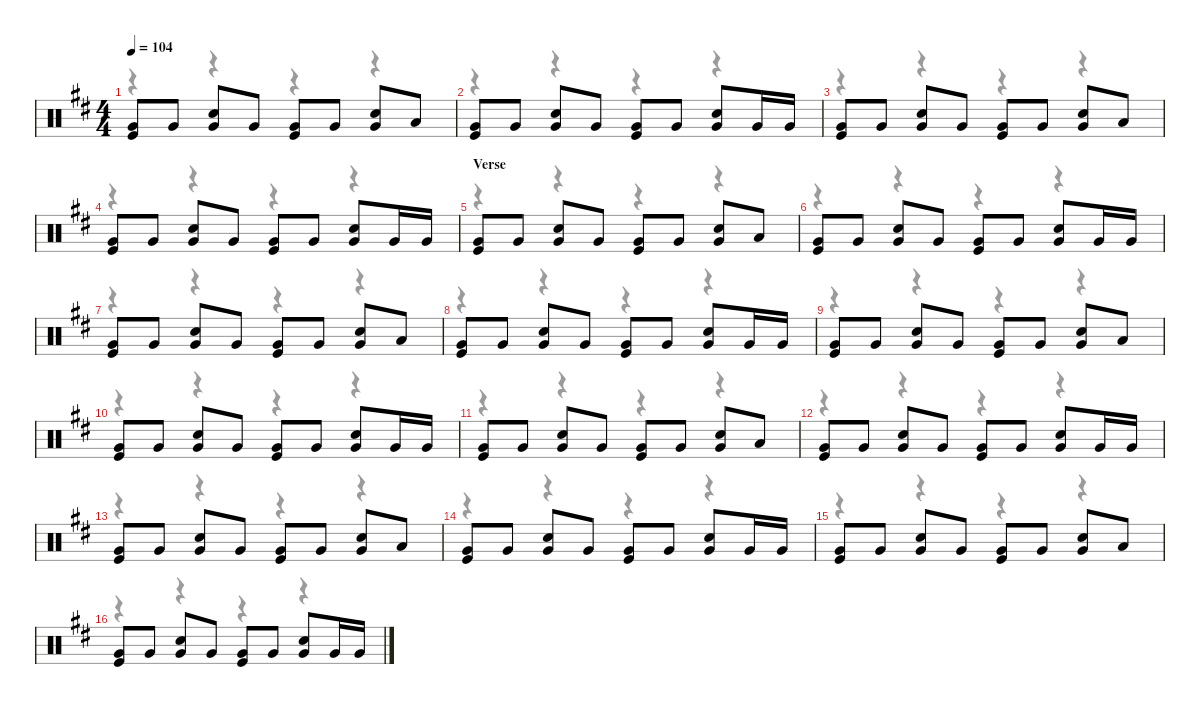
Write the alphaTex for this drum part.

\defaultSystemsLayout 4
\hideDynamics
\bracketExtendMode nobrackets
\singleTrackTrackNamePolicy hidden
\multiTrackTrackNamePolicy hidden
\firstSystemTrackNameMode fullname
\otherSystemsTrackNameOrientation horizontal
\track ("Drums" "drm.") {instrument percussion}
\staff {score}
\articulation defaults
\voice
\ts (4 4)
\tempo 104
\clef neutral
\ks bminor
("Very Low Tom (hit)"{acc forcenatural} "Kick (hit)"{acc forcenatural}).8{dy mp beam Up} "Very Low Tom (hit)"{acc forcenatural}.8{beam Up} ("Very Low Tom (hit)"{acc forcenatural} "Snare (hit) 2"{acc forcenatural}).8{beam Up} "Very Low Tom (hit)"{acc forcenatural}.8{beam Up} ("Very Low Tom (hit)"{acc forcenatural} "Kick (hit)"{acc forcenatural}).8{beam Up} "Very Low Tom (hit)"{acc forcenatural}.8{beam Up} ("Very Low Tom (hit)"{acc forcenatural} "Snare (hit) 2"{acc forcenatural}).8{beam Up} "Low Tom (hit)"{acc forcenatural}.8{beam Up} |
("Very Low Tom (hit)"{acc forcenatural} "Kick (hit)"{acc forcenatural}).8{beam Up} "Very Low Tom (hit)"{acc forcenatural}.8{beam Up} ("Very Low Tom (hit)"{acc forcenatural} "Snare (hit) 2"{acc forcenatural}).8{beam Up} "Very Low Tom (hit)"{acc forcenatural}.8{beam Up} ("Very Low Tom (hit)"{acc forcenatural} "Kick (hit)"{acc forcenatural}).8{beam Up} "Very Low Tom (hit)"{acc forcenatural}.8{beam Up} ("Very Low Tom (hit)"{acc forcenatural} "Snare (hit) 2"{acc forcenatural}).8{beam Up} "Very Low Tom (hit)"{acc forcenatural}.16{beam Up} "Very Low Tom (hit)"{acc forcenatural}.16{beam Up} |
("Very Low Tom (hit)"{acc forcenatural} "Kick (hit)"{acc forcenatural}).8{beam Up} "Very Low Tom (hit)"{acc forcenatural}.8{beam Up} ("Very Low Tom (hit)"{acc forcenatural} "Snare (hit) 2"{acc forcenatural}).8{beam Up} "Very Low Tom (hit)"{acc forcenatural}.8{beam Up} ("Very Low Tom (hit)"{acc forcenatural} "Kick (hit)"{acc forcenatural}).8{beam Up} "Very Low Tom (hit)"{acc forcenatural}.8{beam Up} ("Very Low Tom (hit)"{acc forcenatural} "Snare (hit) 2"{acc forcenatural}).8{beam Up} "Low Tom (hit)"{acc forcenatural}.8{beam Up} |
("Very Low Tom (hit)"{acc forcenatural} "Kick (hit)"{acc forcenatural}).8{beam Up} "Very Low Tom (hit)"{acc forcenatural}.8{beam Up} ("Very Low Tom (hit)"{acc forcenatural} "Snare (hit) 2"{acc forcenatural}).8{beam Up} "Very Low Tom (hit)"{acc forcenatural}.8{beam Up} ("Very Low Tom (hit)"{acc forcenatural} "Kick (hit)"{acc forcenatural}).8{beam Up} "Very Low Tom (hit)"{acc forcenatural}.8{beam Up} ("Very Low Tom (hit)"{acc forcenatural} "Snare (hit) 2"{acc forcenatural}).8{beam Up} "Very Low Tom (hit)"{acc forcenatural}.16{beam Up} "Very Low Tom (hit)"{acc forcenatural}.16{beam Up} |
\section ("" "Verse")
("Very Low Tom (hit)"{acc forcenatural} "Kick (hit)"{acc forcenatural}).8{beam Up} "Very Low Tom (hit)"{acc forcenatural}.8{beam Up} ("Very Low Tom (hit)"{acc forcenatural} "Snare (hit) 2"{acc forcenatural}).8{beam Up} "Very Low Tom (hit)"{acc forcenatural}.8{beam Up} ("Very Low Tom (hit)"{acc forcenatural} "Kick (hit)"{acc forcenatural}).8{beam Up} "Very Low Tom (hit)"{acc forcenatural}.8{beam Up} ("Very Low Tom (hit)"{acc forcenatural} "Snare (hit) 2"{acc forcenatural}).8{beam Up} "Low Tom (hit)"{acc forcenatural}.8{beam Up} |
("Very Low Tom (hit)"{acc forcenatural} "Kick (hit)"{acc forcenatural}).8{beam Up} "Very Low Tom (hit)"{acc forcenatural}.8{beam Up} ("Very Low Tom (hit)"{acc forcenatural} "Snare (hit) 2"{acc forcenatural}).8{beam Up} "Very Low Tom (hit)"{acc forcenatural}.8{beam Up} ("Very Low Tom (hit)"{acc forcenatural} "Kick (hit)"{acc forcenatural}).8{beam Up} "Very Low Tom (hit)"{acc forcenatural}.8{beam Up} ("Very Low Tom (hit)"{acc forcenatural} "Snare (hit) 2"{acc forcenatural}).8{beam Up} "Very Low Tom (hit)"{acc forcenatural}.16{beam Up} "Very Low Tom (hit)"{acc forcenatural}.16{beam Up} |
("Very Low Tom (hit)"{acc forcenatural} "Kick (hit)"{acc forcenatural}).8{beam Up} "Very Low Tom (hit)"{acc forcenatural}.8{beam Up} ("Very Low Tom (hit)"{acc forcenatural} "Snare (hit) 2"{acc forcenatural}).8{beam Up} "Very Low Tom (hit)"{acc forcenatural}.8{beam Up} ("Very Low Tom (hit)"{acc forcenatural} "Kick (hit)"{acc forcenatural}).8{beam Up} "Very Low Tom (hit)"{acc forcenatural}.8{beam Up} ("Very Low Tom (hit)"{acc forcenatural} "Snare (hit) 2"{acc forcenatural}).8{beam Up} "Low Tom (hit)"{acc forcenatural}.8{beam Up} |
("Very Low Tom (hit)"{acc forcenatural} "Kick (hit)"{acc forcenatural}).8{beam Up} "Very Low Tom (hit)"{acc forcenatural}.8{beam Up} ("Very Low Tom (hit)"{acc forcenatural} "Snare (hit) 2"{acc forcenatural}).8{beam Up} "Very Low Tom (hit)"{acc forcenatural}.8{beam Up} ("Very Low Tom (hit)"{acc forcenatural} "Kick (hit)"{acc forcenatural}).8{beam Up} "Very Low Tom (hit)"{acc forcenatural}.8{beam Up} ("Very Low Tom (hit)"{acc forcenatural} "Snare (hit) 2"{acc forcenatural}).8{beam Up} "Very Low Tom (hit)"{acc forcenatural}.16{beam Up} "Very Low Tom (hit)"{acc forcenatural}.16{beam Up} |
("Very Low Tom (hit)"{acc forcenatural} "Kick (hit)"{acc forcenatural}).8{beam Up} "Very Low Tom (hit)"{acc forcenatural}.8{beam Up} ("Very Low Tom (hit)"{acc forcenatural} "Snare (hit) 2"{acc forcenatural}).8{beam Up} "Very Low Tom (hit)"{acc forcenatural}.8{beam Up} ("Very Low Tom (hit)"{acc forcenatural} "Kick (hit)"{acc forcenatural}).8{beam Up} "Very Low Tom (hit)"{acc forcenatural}.8{beam Up} ("Very Low Tom (hit)"{acc forcenatural} "Snare (hit) 2"{acc forcenatural}).8{beam Up} "Low Tom (hit)"{acc forcenatural}.8{beam Up} |
("Very Low Tom (hit)"{acc forcenatural} "Kick (hit)"{acc forcenatural}).8{beam Up} "Very Low Tom (hit)"{acc forcenatural}.8{beam Up} ("Very Low Tom (hit)"{acc forcenatural} "Snare (hit) 2"{acc forcenatural}).8{beam Up} "Very Low Tom (hit)"{acc forcenatural}.8{beam Up} ("Very Low Tom (hit)"{acc forcenatural} "Kick (hit)"{acc forcenatural}).8{beam Up} "Very Low Tom (hit)"{acc forcenatural}.8{beam Up} ("Very Low Tom (hit)"{acc forcenatural} "Snare (hit) 2"{acc forcenatural}).8{beam Up} "Very Low Tom (hit)"{acc forcenatural}.16{beam Up} "Very Low Tom (hit)"{acc forcenatural}.16{beam Up} |
("Very Low Tom (hit)"{acc forcenatural} "Kick (hit)"{acc forcenatural}).8{beam Up} "Very Low Tom (hit)"{acc forcenatural}.8{beam Up} ("Very Low Tom (hit)"{acc forcenatural} "Snare (hit) 2"{acc forcenatural}).8{beam Up} "Very Low Tom (hit)"{acc forcenatural}.8{beam Up} ("Very Low Tom (hit)"{acc forcenatural} "Kick (hit)"{acc forcenatural}).8{beam Up} "Very Low Tom (hit)"{acc forcenatural}.8{beam Up} ("Very Low Tom (hit)"{acc forcenatural} "Snare (hit) 2"{acc forcenatural}).8{beam Up} "Low Tom (hit)"{acc forcenatural}.8{beam Up} |
("Very Low Tom (hit)"{acc forcenatural} "Kick (hit)"{acc forcenatural}).8{beam Up} "Very Low Tom (hit)"{acc forcenatural}.8{beam Up} ("Very Low Tom (hit)"{acc forcenatural} "Snare (hit) 2"{acc forcenatural}).8{beam Up} "Very Low Tom (hit)"{acc forcenatural}.8{beam Up} ("Very Low Tom (hit)"{acc forcenatural} "Kick (hit)"{acc forcenatural}).8{beam Up} "Very Low Tom (hit)"{acc forcenatural}.8{beam Up} ("Very Low Tom (hit)"{acc forcenatural} "Snare (hit) 2"{acc forcenatural}).8{beam Up} "Very Low Tom (hit)"{acc forcenatural}.16{beam Up} "Very Low Tom (hit)"{acc forcenatural}.16{beam Up} |
("Very Low Tom (hit)"{acc forcenatural} "Kick (hit)"{acc forcenatural}).8{beam Up} "Very Low Tom (hit)"{acc forcenatural}.8{beam Up} ("Very Low Tom (hit)"{acc forcenatural} "Snare (hit) 2"{acc forcenatural}).8{beam Up} "Very Low Tom (hit)"{acc forcenatural}.8{beam Up} ("Very Low Tom (hit)"{acc forcenatural} "Kick (hit)"{acc forcenatural}).8{beam Up} "Very Low Tom (hit)"{acc forcenatural}.8{beam Up} ("Very Low Tom (hit)"{acc forcenatural} "Snare (hit) 2"{acc forcenatural}).8{beam Up} "Low Tom (hit)"{acc forcenatural}.8{beam Up} |
("Very Low Tom (hit)"{acc forcenatural} "Kick (hit)"{acc forcenatural}).8{beam Up} "Very Low Tom (hit)"{acc forcenatural}.8{beam Up} ("Very Low Tom (hit)"{acc forcenatural} "Snare (hit) 2"{acc forcenatural}).8{beam Up} "Very Low Tom (hit)"{acc forcenatural}.8{beam Up} ("Very Low Tom (hit)"{acc forcenatural} "Kick (hit)"{acc forcenatural}).8{beam Up} "Very Low Tom (hit)"{acc forcenatural}.8{beam Up} ("Very Low Tom (hit)"{acc forcenatural} "Snare (hit) 2"{acc forcenatural}).8{beam Up} "Very Low Tom (hit)"{acc forcenatural}.16{beam Up} "Very Low Tom (hit)"{acc forcenatural}.16{beam Up} |
("Very Low Tom (hit)"{acc forcenatural} "Kick (hit)"{acc forcenatural}).8{beam Up} "Very Low Tom (hit)"{acc forcenatural}.8{beam Up} ("Very Low Tom (hit)"{acc forcenatural} "Snare (hit) 2"{acc forcenatural}).8{beam Up} "Very Low Tom (hit)"{acc forcenatural}.8{beam Up} ("Very Low Tom (hit)"{acc forcenatural} "Kick (hit)"{acc forcenatural}).8{beam Up} "Very Low Tom (hit)"{acc forcenatural}.8{beam Up} ("Very Low Tom (hit)"{acc forcenatural} "Snare (hit) 2"{acc forcenatural}).8{beam Up} "Low Tom (hit)"{acc forcenatural}.8{beam Up} |
("Very Low Tom (hit)"{acc forcenatural} "Kick (hit)"{acc forcenatural}).8{beam Up} "Very Low Tom (hit)"{acc forcenatural}.8{beam Up} ("Very Low Tom (hit)"{acc forcenatural} "Snare (hit) 2"{acc forcenatural}).8{beam Up} "Very Low Tom (hit)"{acc forcenatural}.8{beam Up} ("Very Low Tom (hit)"{acc forcenatural} "Kick (hit)"{acc forcenatural}).8{beam Up} "Very Low Tom (hit)"{acc forcenatural}.8{beam Up} ("Very Low Tom (hit)"{acc forcenatural} "Snare (hit) 2"{acc forcenatural}).8{beam Up} "Very Low Tom (hit)"{acc forcenatural}.16{beam Up} "Very Low Tom (hit)"{acc forcenatural}.16{beam Up}
\voice
\clef neutral
\ottava regular
\simile none
\ks bminor
r.4{dy mf beam Down} r.4{beam Down} r.4{beam Down} r.4{beam Down} |
r.4{beam Down} r.4{beam Down} r.4{beam Down} r.4{beam Down} |
r.4{beam Down} r.4{beam Down} r.4{beam Down} r.4{beam Down} |
r.4{beam Down} r.4{beam Down} r.4{beam Down} r.4{beam Down} |
r.4{beam Down} r.4{beam Down} r.4{beam Down} r.4{beam Down} |
r.4{beam Down} r.4{beam Down} r.4{beam Down} r.4{beam Down} |
r.4{beam Down} r.4{beam Down} r.4{beam Down} r.4{beam Down} |
r.4{beam Down} r.4{beam Down} r.4{beam Down} r.4{beam Down} |
r.4{beam Down} r.4{beam Down} r.4{beam Down} r.4{beam Down} |
r.4{beam Down} r.4{beam Down} r.4{beam Down} r.4{beam Down} |
r.4{beam Down} r.4{beam Down} r.4{beam Down} r.4{beam Down} |
r.4{beam Down} r.4{beam Down} r.4{beam Down} r.4{beam Down} |
r.4{beam Down} r.4{beam Down} r.4{beam Down} r.4{beam Down} |
r.4{beam Down} r.4{beam Down} r.4{beam Down} r.4{beam Down} |
r.4{beam Down} r.4{beam Down} r.4{beam Down} r.4{beam Down} |
r.4{beam Down} r.4{beam Down} r.4{beam Down} r.4{beam Down}
